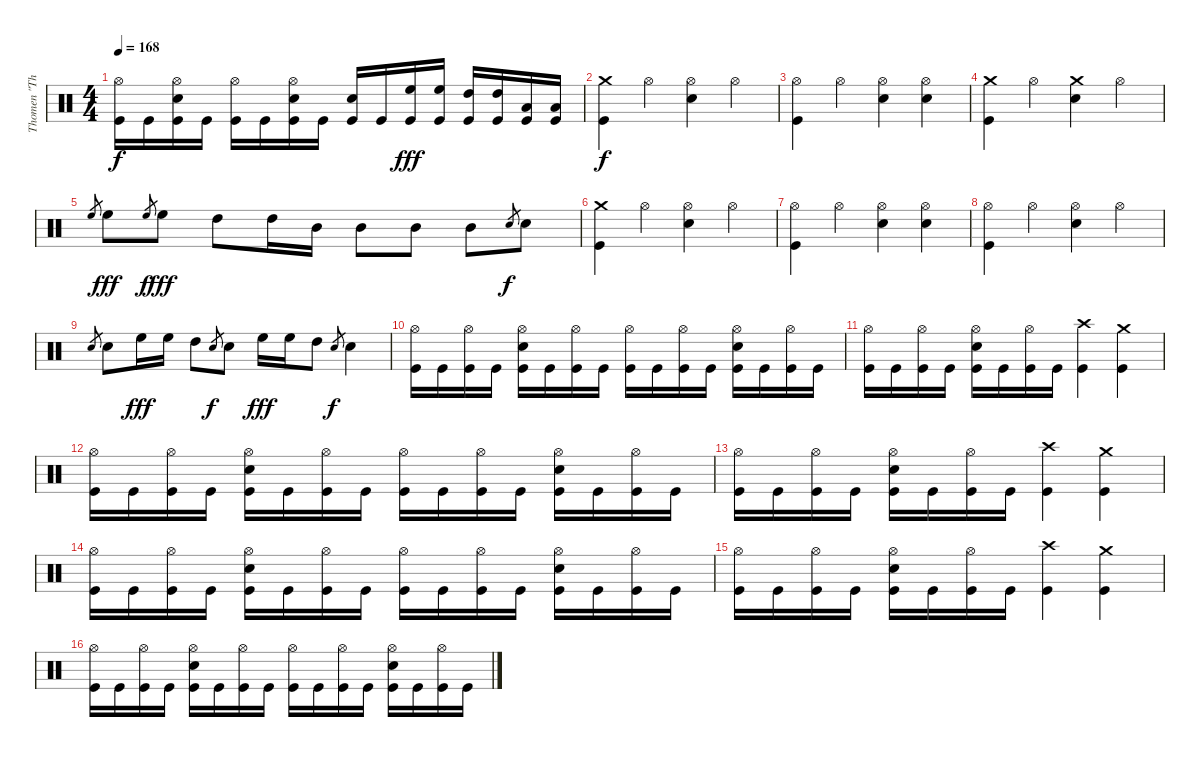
\track ("Thomen \"The Omen\" Stauch" "Thomen \"Th") {instrument percussion}
\staff {score}
\articulation defaults
\ts (4 4)
\tempo 168
\clef neutral
\ks c
("Hi-Hat (open)" "Kick (hit)").16{dy f} "Kick (hit)".16 ("Hi-Hat (open)" "Snare (hit) 2" "Kick (hit)").16 "Kick (hit)".16 ("Hi-Hat (open)" "Kick (hit)").16 "Kick (hit)".16 ("Hi-Hat (open)" "Snare (hit) 2" "Kick (hit)").16 "Kick (hit)".16 ("Snare (hit) 2" "Kick (hit)").16 "Kick (hit)".16 ("High Floor Tom (hit)" "Kick (hit)").16{dy fff} ("High Floor Tom (hit)" "Kick (hit)").16 ("High Tom (hit)" "Kick (hit)").16 ("High Tom (hit)" "Kick (hit)").16 ("Low Tom (hit)" "Kick (hit)").16 ("Low Tom (hit)" "Kick (hit)").16 |
("Crash medium (hit)" "Kick (hit)").4{dy f} "Hi-Hat (open)".4 ("Hi-Hat (open)" "Snare (hit) 2").4 "Hi-Hat (open)".4 |
("Hi-Hat (open)" "Kick (hit)").4 "Hi-Hat (open)".4 ("Hi-Hat (open)" "Snare (hit) 2").4 ("Hi-Hat (open)" "Snare (hit) 2").4 |
("Crash medium (hit)" "Kick (hit)").4 "Hi-Hat (open)".4 ("Crash medium (hit)" "Snare (hit) 2").4 "Hi-Hat (open)".4 |
"High Floor Tom (hit)".8{gr} "High Floor Tom (hit)".8{dy fff} "High Floor Tom (hit)".8{gr dy f} "High Floor Tom (hit)".8{dy fff} "High Tom (hit)".8 "High Tom (hit)".16 "Mid Tom (hit)".16 "Mid Tom (hit)".8 "Mid Tom (hit)".8 "Mid Tom (hit)".8 "Snare (hit) 2".8{gr dy f} "Snare (hit) 2".8 |
("Crash medium (hit)" "Kick (hit)").4 "Hi-Hat (open)".4 ("Hi-Hat (open)" "Snare (hit) 2").4 "Hi-Hat (open)".4 |
("Hi-Hat (open)" "Kick (hit)").4 "Hi-Hat (open)".4 ("Hi-Hat (open)" "Snare (hit) 2").4 ("Hi-Hat (open)" "Snare (hit) 2").4 |
("Hi-Hat (open)" "Kick (hit)").4 "Hi-Hat (open)".4 ("Hi-Hat (open)" "Snare (hit) 2").4 "Hi-Hat (open)".4 |
"Snare (hit) 2".8{gr} "Snare (hit) 2".8 "High Floor Tom (hit)".16{dy fff} "High Floor Tom (hit)".16 "High Tom (hit)".8 "Snare (hit) 2".8{gr dy f} "Snare (hit) 2".8 "High Floor Tom (hit)".16{dy fff} "High Floor Tom (hit)".16 "High Tom (hit)".8 "Snare (hit) 2".8{gr dy f} "Snare (hit) 2".4 |
("Hi-Hat (open)" "Kick (hit)").16 "Kick (hit)".16 ("Hi-Hat (open)" "Kick (hit)").16 "Kick (hit)".16 ("Hi-Hat (open)" "Snare (hit) 2" "Kick (hit)").16 "Kick (hit)".16 ("Hi-Hat (open)" "Kick (hit)").16 "Kick (hit)".16 ("Hi-Hat (open)" "Kick (hit)").16 "Kick (hit)".16 ("Hi-Hat (open)" "Kick (hit)").16 "Kick (hit)".16 ("Hi-Hat (open)" "Snare (hit) 2" "Kick (hit)").16 "Kick (hit)".16 ("Hi-Hat (open)" "Kick (hit)").16 "Kick (hit)".16 |
("Hi-Hat (open)" "Kick (hit)").16 "Kick (hit)".16 ("Hi-Hat (open)" "Kick (hit)").16 "Kick (hit)".16 ("Hi-Hat (open)" "Snare (hit) 2" "Kick (hit)").16 "Kick (hit)".16 ("Hi-Hat (open)" "Kick (hit)").16 "Kick (hit)".16 ("Crash high (hit)" "Kick (hit)").4 ("Crash medium (hit)" "Kick (hit)").4 |
("Hi-Hat (open)" "Kick (hit)").16 "Kick (hit)".16 ("Hi-Hat (open)" "Kick (hit)").16 "Kick (hit)".16 ("Hi-Hat (open)" "Snare (hit) 2" "Kick (hit)").16 "Kick (hit)".16 ("Hi-Hat (open)" "Kick (hit)").16 "Kick (hit)".16 ("Hi-Hat (open)" "Kick (hit)").16 "Kick (hit)".16 ("Hi-Hat (open)" "Kick (hit)").16 "Kick (hit)".16 ("Hi-Hat (open)" "Snare (hit) 2" "Kick (hit)").16 "Kick (hit)".16 ("Hi-Hat (open)" "Kick (hit)").16 "Kick (hit)".16 |
("Hi-Hat (open)" "Kick (hit)").16 "Kick (hit)".16 ("Hi-Hat (open)" "Kick (hit)").16 "Kick (hit)".16 ("Hi-Hat (open)" "Snare (hit) 2" "Kick (hit)").16 "Kick (hit)".16 ("Hi-Hat (open)" "Kick (hit)").16 "Kick (hit)".16 ("Crash high (hit)" "Kick (hit)").4 ("Crash medium (hit)" "Kick (hit)").4 |
("Hi-Hat (open)" "Kick (hit)").16 "Kick (hit)".16 ("Hi-Hat (open)" "Kick (hit)").16 "Kick (hit)".16 ("Hi-Hat (open)" "Snare (hit) 2" "Kick (hit)").16 "Kick (hit)".16 ("Hi-Hat (open)" "Kick (hit)").16 "Kick (hit)".16 ("Hi-Hat (open)" "Kick (hit)").16 "Kick (hit)".16 ("Hi-Hat (open)" "Kick (hit)").16 "Kick (hit)".16 ("Hi-Hat (open)" "Snare (hit) 2" "Kick (hit)").16 "Kick (hit)".16 ("Hi-Hat (open)" "Kick (hit)").16 "Kick (hit)".16 |
("Hi-Hat (open)" "Kick (hit)").16 "Kick (hit)".16 ("Hi-Hat (open)" "Kick (hit)").16 "Kick (hit)".16 ("Hi-Hat (open)" "Snare (hit) 2" "Kick (hit)").16 "Kick (hit)".16 ("Hi-Hat (open)" "Kick (hit)").16 "Kick (hit)".16 ("Crash high (hit)" "Kick (hit)").4 ("Crash medium (hit)" "Kick (hit)").4 |
("Hi-Hat (open)" "Kick (hit)").16 "Kick (hit)".16 ("Hi-Hat (open)" "Kick (hit)").16 "Kick (hit)".16 ("Hi-Hat (open)" "Snare (hit) 2" "Kick (hit)").16 "Kick (hit)".16 ("Hi-Hat (open)" "Kick (hit)").16 "Kick (hit)".16 ("Hi-Hat (open)" "Kick (hit)").16 "Kick (hit)".16 ("Hi-Hat (open)" "Kick (hit)").16 "Kick (hit)".16 ("Hi-Hat (open)" "Snare (hit) 2" "Kick (hit)").16 "Kick (hit)".16 ("Hi-Hat (open)" "Kick (hit)").16 "Kick (hit)".16
